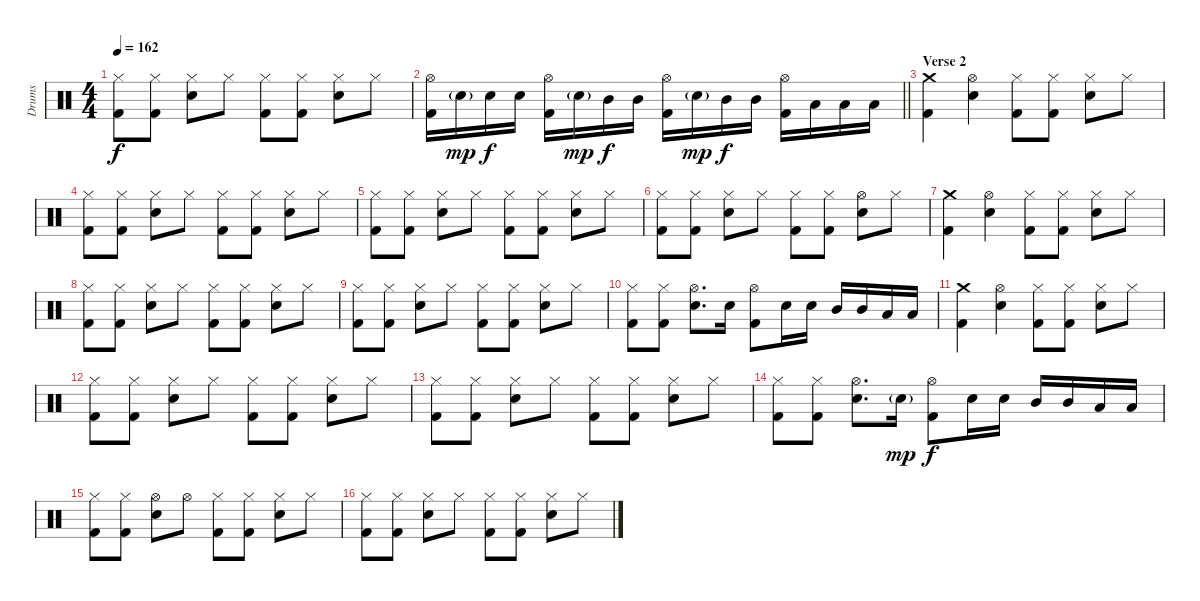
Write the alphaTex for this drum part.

\track ("Drums" "Drums") {instrument percussion}
\staff {score}
\articulation defaults
\ts (4 4)
\tempo 162
\clef neutral
\ks c
("Hi-Hat (closed)" "Kick (hit) 2").8{dy f} ("Hi-Hat (closed)" "Kick (hit) 2").8 ("Hi-Hat (closed)" "Electric Snare (hit)").8 "Hi-Hat (closed)".8 ("Hi-Hat (closed)" "Kick (hit) 2").8 ("Hi-Hat (closed)" "Kick (hit) 2").8 ("Hi-Hat (closed)" "Electric Snare (hit)").8 "Hi-Hat (closed)".8 |
\barLineRight lightlight
("Hi-Hat (open)" "Kick (hit) 2").16 "Electric Snare (hit)"{g}.16{dy mp} "Electric Snare (hit)".16{dy f} "Electric Snare (hit)".16 ("Hi-Hat (open)" "Kick (hit) 2").16 "Electric Snare (hit)"{g}.16{dy mp} "Mid Tom (hit)".16{dy f} "Mid Tom (hit)".16 ("Hi-Hat (open)" "Kick (hit) 2").16 "Electric Snare (hit)"{g}.16{dy mp} "Mid Tom (hit)".16{dy f} "Mid Tom (hit)".16 ("Hi-Hat (open)" "Kick (hit) 2").16 "Low Tom (hit)".16 "Low Floor Tom (hit)".16 "Low Floor Tom (hit)".16 |
\section ("" "Verse 2")
("Crash medium (hit)" "Kick (hit) 2").4 ("Hi-Hat (open)" "Electric Snare (hit)").4 ("Hi-Hat (closed)" "Kick (hit) 2").8 ("Hi-Hat (closed)" "Kick (hit) 2").8 ("Hi-Hat (closed)" "Electric Snare (hit)").8 "Hi-Hat (closed)".8 |
("Hi-Hat (closed)" "Kick (hit) 2").8 ("Hi-Hat (closed)" "Kick (hit) 2").8 ("Hi-Hat (closed)" "Electric Snare (hit)").8 "Hi-Hat (closed)".8 ("Hi-Hat (closed)" "Kick (hit) 2").8 ("Hi-Hat (closed)" "Kick (hit) 2").8 ("Hi-Hat (closed)" "Electric Snare (hit)").8 "Hi-Hat (closed)".8 |
("Hi-Hat (closed)" "Kick (hit) 2").8 ("Hi-Hat (closed)" "Kick (hit) 2").8 ("Hi-Hat (closed)" "Electric Snare (hit)").8 "Hi-Hat (closed)".8 ("Hi-Hat (closed)" "Kick (hit) 2").8 ("Hi-Hat (closed)" "Kick (hit) 2").8 ("Hi-Hat (closed)" "Electric Snare (hit)").8 "Hi-Hat (closed)".8 |
("Hi-Hat (closed)" "Kick (hit) 2").8 ("Hi-Hat (closed)" "Kick (hit) 2").8 ("Hi-Hat (closed)" "Electric Snare (hit)").8 "Hi-Hat (closed)".8 ("Hi-Hat (closed)" "Kick (hit) 2").8 ("Hi-Hat (closed)" "Kick (hit) 2").8 ("Hi-Hat (open)" "Electric Snare (hit)").8 "Hi-Hat (closed)".8 |
("Crash medium (hit)" "Kick (hit) 2").4 ("Hi-Hat (open)" "Electric Snare (hit)").4 ("Hi-Hat (closed)" "Kick (hit) 2").8 ("Hi-Hat (closed)" "Kick (hit) 2").8 ("Hi-Hat (closed)" "Electric Snare (hit)").8 "Hi-Hat (closed)".8 |
("Hi-Hat (closed)" "Kick (hit) 2").8 ("Hi-Hat (closed)" "Kick (hit) 2").8 ("Hi-Hat (closed)" "Electric Snare (hit)").8 "Hi-Hat (closed)".8 ("Hi-Hat (closed)" "Kick (hit) 2").8 ("Hi-Hat (closed)" "Kick (hit) 2").8 ("Hi-Hat (closed)" "Electric Snare (hit)").8 "Hi-Hat (closed)".8 |
("Hi-Hat (closed)" "Kick (hit) 2").8 ("Hi-Hat (closed)" "Kick (hit) 2").8 ("Hi-Hat (closed)" "Electric Snare (hit)").8 "Hi-Hat (closed)".8 ("Hi-Hat (closed)" "Kick (hit) 2").8 ("Hi-Hat (closed)" "Kick (hit) 2").8 ("Hi-Hat (closed)" "Electric Snare (hit)").8 "Hi-Hat (closed)".8 |
("Hi-Hat (closed)" "Kick (hit) 2").8 ("Hi-Hat (closed)" "Kick (hit) 2").8 ("Hi-Hat (open)" "Electric Snare (hit)").8{d} "Electric Snare (hit)".16 ("Hi-Hat (open)" "Kick (hit) 2").8 "Electric Snare (hit)".16 "Electric Snare (hit)".16 "Mid Tom (hit)".16 "Mid Tom (hit)".16 "Low Tom (hit)".16 "Low Tom (hit)".16 |
("Crash medium (hit)" "Kick (hit) 2").4 ("Hi-Hat (open)" "Electric Snare (hit)").4 ("Hi-Hat (closed)" "Kick (hit) 2").8 ("Hi-Hat (closed)" "Kick (hit) 2").8 ("Hi-Hat (closed)" "Electric Snare (hit)").8 "Hi-Hat (closed)".8 |
("Hi-Hat (closed)" "Kick (hit) 2").8 ("Hi-Hat (closed)" "Kick (hit) 2").8 ("Hi-Hat (closed)" "Electric Snare (hit)").8 "Hi-Hat (closed)".8 ("Hi-Hat (closed)" "Kick (hit) 2").8 ("Hi-Hat (closed)" "Kick (hit) 2").8 ("Hi-Hat (closed)" "Electric Snare (hit)").8 "Hi-Hat (closed)".8 |
("Hi-Hat (closed)" "Kick (hit) 2").8 ("Hi-Hat (closed)" "Kick (hit) 2").8 ("Hi-Hat (closed)" "Electric Snare (hit)").8 "Hi-Hat (closed)".8 ("Hi-Hat (closed)" "Kick (hit) 2").8 ("Hi-Hat (closed)" "Kick (hit) 2").8 ("Hi-Hat (closed)" "Electric Snare (hit)").8 "Hi-Hat (closed)".8 |
("Hi-Hat (closed)" "Kick (hit) 2").8 ("Hi-Hat (closed)" "Kick (hit) 2").8 ("Hi-Hat (open)" "Electric Snare (hit)").8{d} "Electric Snare (hit)"{g}.16{dy mp} ("Hi-Hat (open)" "Kick (hit) 2").8{dy f} "Electric Snare (hit)".16 "Electric Snare (hit)".16 "Mid Tom (hit)".16 "Mid Tom (hit)".16 "Low Tom (hit)".16 "Low Tom (hit)".16 |
("Hi-Hat (closed)" "Kick (hit) 2").8 ("Hi-Hat (closed)" "Kick (hit) 2").8 ("Hi-Hat (open)" "Electric Snare (hit)").8 "Hi-Hat (open)".8 ("Hi-Hat (closed)" "Kick (hit) 2").8 ("Hi-Hat (closed)" "Kick (hit) 2").8 ("Hi-Hat (closed)" "Electric Snare (hit)").8 "Hi-Hat (closed)".8 |
("Hi-Hat (closed)" "Kick (hit) 2").8 ("Hi-Hat (closed)" "Kick (hit) 2").8 ("Hi-Hat (closed)" "Electric Snare (hit)").8 "Hi-Hat (closed)".8 ("Hi-Hat (closed)" "Kick (hit) 2").8 ("Hi-Hat (closed)" "Kick (hit) 2").8 ("Hi-Hat (closed)" "Electric Snare (hit)").8 "Hi-Hat (closed)".8
